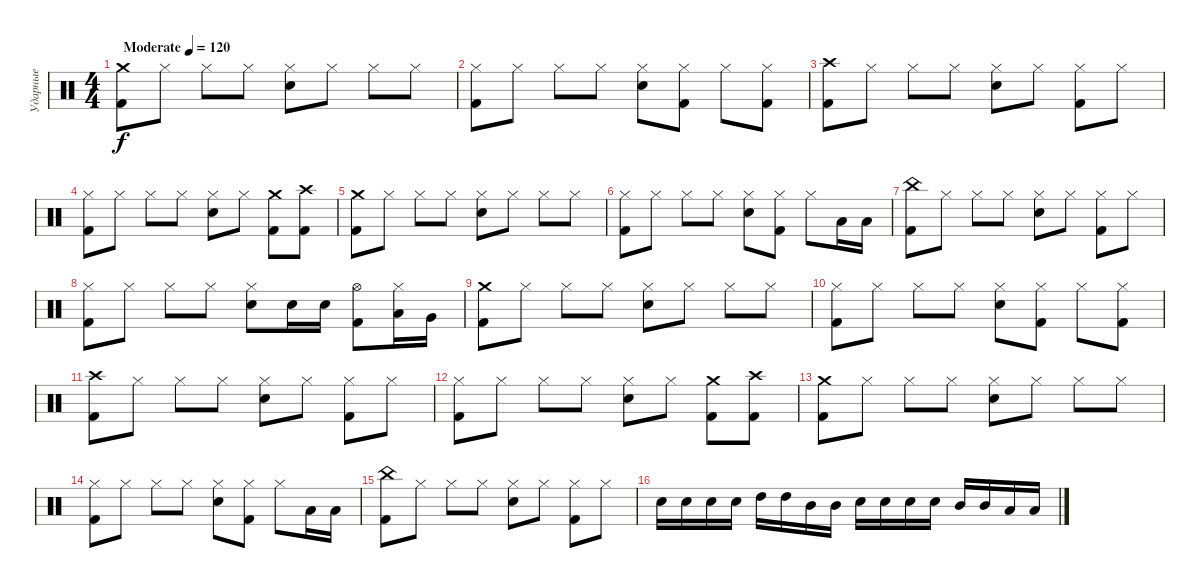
\track ("Ударные" "Ударные") {instrument percussion}
\staff {score}
\articulation defaults
\ts (4 4)
\tempo (120 "Moderate")
\clef neutral
\ks c
("Crash medium (hit)" "Kick (hit) 2").8{dy f} "Hi-Hat (closed)".8 "Hi-Hat (closed)".8 "Hi-Hat (closed)".8 ("Hi-Hat (closed)" "Electric Snare (hit)").8 "Hi-Hat (closed)".8 "Hi-Hat (closed)".8 "Hi-Hat (closed)".8 |
("Hi-Hat (closed)" "Kick (hit) 2").8 "Hi-Hat (closed)".8 "Hi-Hat (closed)".8 "Hi-Hat (closed)".8 ("Hi-Hat (closed)" "Electric Snare (hit)").8 ("Hi-Hat (closed)" "Kick (hit) 2").8 "Hi-Hat (closed)".8 ("Hi-Hat (closed)" "Kick (hit) 2").8 |
("Crash high (hit)" "Kick (hit) 2").8 "Hi-Hat (closed)".8 "Hi-Hat (closed)".8 "Hi-Hat (closed)".8 ("Hi-Hat (closed)" "Electric Snare (hit)").8 "Hi-Hat (closed)".8 ("Hi-Hat (closed)" "Kick (hit) 2").8 "Hi-Hat (closed)".8 |
("Hi-Hat (closed)" "Kick (hit) 2").8 "Hi-Hat (closed)".8 "Hi-Hat (closed)".8 "Hi-Hat (closed)".8 ("Hi-Hat (closed)" "Electric Snare (hit)").8 "Hi-Hat (closed)".8 ("Crash medium (hit)" "Kick (hit) 2").8 ("Crash high (hit)" "Kick (hit) 2").8 |
("Crash medium (hit)" "Kick (hit) 2").8 "Hi-Hat (closed)".8 "Hi-Hat (closed)".8 "Hi-Hat (closed)".8 ("Hi-Hat (closed)" "Electric Snare (hit)").8 "Hi-Hat (closed)".8 "Hi-Hat (closed)".8 "Hi-Hat (closed)".8 |
("Hi-Hat (closed)" "Kick (hit) 2").8 "Hi-Hat (closed)".8 "Hi-Hat (closed)".8 "Hi-Hat (closed)".8 ("Hi-Hat (closed)" "Electric Snare (hit)").8 ("Hi-Hat (closed)" "Kick (hit) 2").8 "Hi-Hat (closed)".8 "Low Tom (hit)".16 "Low Tom (hit)".16 |
("China (hit)" "Kick (hit) 2").8 "Hi-Hat (closed)".8 "Hi-Hat (closed)".8 "Hi-Hat (closed)".8 ("Hi-Hat (closed)" "Electric Snare (hit)").8 "Hi-Hat (closed)".8 ("Hi-Hat (closed)" "Kick (hit) 2").8 "Hi-Hat (closed)".8 |
("Hi-Hat (closed)" "Kick (hit) 2").8 "Hi-Hat (closed)".8 "Hi-Hat (closed)".8 "Hi-Hat (closed)".8 ("Hi-Hat (closed)" "Electric Snare (hit)").8 "Electric Snare (hit)".16 "Electric Snare (hit)".16 ("Hi-Hat (open)" "Kick (hit) 2").8 ("Hi-Hat (closed)" "Low Tom (hit)").16 "Very Low Tom (hit)".16 |
("Crash medium (hit)" "Kick (hit) 2").8 "Hi-Hat (closed)".8 "Hi-Hat (closed)".8 "Hi-Hat (closed)".8 ("Hi-Hat (closed)" "Electric Snare (hit)").8 "Hi-Hat (closed)".8 "Hi-Hat (closed)".8 "Hi-Hat (closed)".8 |
("Hi-Hat (closed)" "Kick (hit) 2").8 "Hi-Hat (closed)".8 "Hi-Hat (closed)".8 "Hi-Hat (closed)".8 ("Hi-Hat (closed)" "Electric Snare (hit)").8 ("Hi-Hat (closed)" "Kick (hit) 2").8 "Hi-Hat (closed)".8 ("Hi-Hat (closed)" "Kick (hit) 2").8 |
("Crash high (hit)" "Kick (hit) 2").8 "Hi-Hat (closed)".8 "Hi-Hat (closed)".8 "Hi-Hat (closed)".8 ("Hi-Hat (closed)" "Electric Snare (hit)").8 "Hi-Hat (closed)".8 ("Hi-Hat (closed)" "Kick (hit) 2").8 "Hi-Hat (closed)".8 |
("Hi-Hat (closed)" "Kick (hit) 2").8 "Hi-Hat (closed)".8 "Hi-Hat (closed)".8 "Hi-Hat (closed)".8 ("Hi-Hat (closed)" "Electric Snare (hit)").8 "Hi-Hat (closed)".8 ("Crash medium (hit)" "Kick (hit) 2").8 ("Crash high (hit)" "Kick (hit) 2").8 |
("Crash medium (hit)" "Kick (hit) 2").8 "Hi-Hat (closed)".8 "Hi-Hat (closed)".8 "Hi-Hat (closed)".8 ("Hi-Hat (closed)" "Electric Snare (hit)").8 "Hi-Hat (closed)".8 "Hi-Hat (closed)".8 "Hi-Hat (closed)".8 |
("Hi-Hat (closed)" "Kick (hit) 2").8 "Hi-Hat (closed)".8 "Hi-Hat (closed)".8 "Hi-Hat (closed)".8 ("Hi-Hat (closed)" "Electric Snare (hit)").8 ("Hi-Hat (closed)" "Kick (hit) 2").8 "Hi-Hat (closed)".8 "Low Tom (hit)".16 "Low Tom (hit)".16 |
("China (hit)" "Kick (hit) 2").8 "Hi-Hat (closed)".8 "Hi-Hat (closed)".8 "Hi-Hat (closed)".8 ("Hi-Hat (closed)" "Electric Snare (hit)").8 "Hi-Hat (closed)".8 ("Hi-Hat (closed)" "Kick (hit) 2").8 "Hi-Hat (closed)".8 |
"Electric Snare (hit)".16 "Electric Snare (hit)".16 "Electric Snare (hit)".16 "Electric Snare (hit)".16 "High Tom (hit)".16 "High Tom (hit)".16 "Mid Tom (hit)".16 "Mid Tom (hit)".16 "Electric Snare (hit)".16 "Electric Snare (hit)".16 "Electric Snare (hit)".16 "Electric Snare (hit)".16 "Mid Tom (hit)".16 "Mid Tom (hit)".16 "Low Tom (hit)".16 "Low Tom (hit)".16
